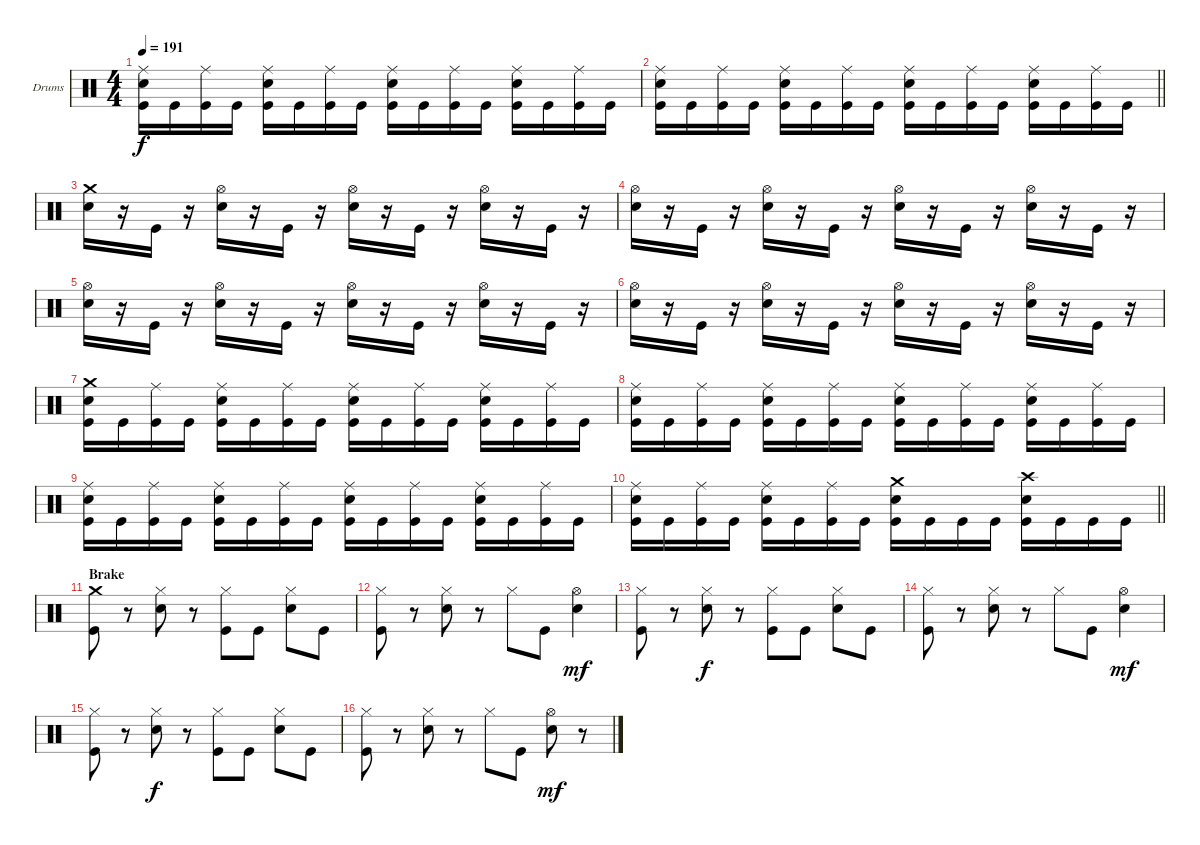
\bracketExtendMode groupsimilarinstruments
\firstSystemTrackNameOrientation horizontal
\otherSystemsTrackNameOrientation horizontal
\track ("Drumkit" "Drums") {instrument percussion}
\staff {score}
\articulation defaults
\ts (4 4)
\tempo 191
\clef neutral
\ks c
("Ride (middle)" "Snare (hit) 2" "Kick (hit)").16{dy f} "Kick (hit)".16 ("Ride (middle)" "Kick (hit)").16 "Kick (hit)".16 ("Ride (middle)" "Snare (hit) 2" "Kick (hit)").16 "Kick (hit)".16 ("Ride (middle)" "Kick (hit)").16 "Kick (hit)".16 ("Ride (middle)" "Snare (hit) 2" "Kick (hit)").16 "Kick (hit)".16 ("Ride (middle)" "Kick (hit)").16 "Kick (hit)".16 ("Ride (middle)" "Snare (hit) 2" "Kick (hit)").16 "Kick (hit)".16 ("Ride (middle)" "Kick (hit)").16 "Kick (hit)".16 |
\barLineRight lightlight
("Ride (middle)" "Snare (hit) 2" "Kick (hit)").16 "Kick (hit)".16 ("Ride (middle)" "Kick (hit)").16 "Kick (hit)".16 ("Ride (middle)" "Snare (hit) 2" "Kick (hit)").16 "Kick (hit)".16 ("Ride (middle)" "Kick (hit)").16 "Kick (hit)".16 ("Ride (middle)" "Snare (hit) 2" "Kick (hit)").16 "Kick (hit)".16 ("Ride (middle)" "Kick (hit)").16 "Kick (hit)".16 ("Ride (middle)" "Snare (hit) 2" "Kick (hit)").16 "Kick (hit)".16 ("Ride (middle)" "Kick (hit)").16 "Kick (hit)".16 |
\section ("" "")
("Crash medium (hit)" "Snare (hit) 2").16 r.16 "Kick (hit)".16 r.16 ("Hi-Hat (open)" "Snare (hit) 2").16 r.16 "Kick (hit)".16 r.16 ("Hi-Hat (open)" "Snare (hit) 2").16 r.16 "Kick (hit)".16 r.16 ("Hi-Hat (open)" "Snare (hit) 2").16 r.16 "Kick (hit)".16 r.16 |
("Hi-Hat (open)" "Snare (hit) 2").16 r.16 "Kick (hit)".16 r.16 ("Hi-Hat (open)" "Snare (hit) 2").16 r.16 "Kick (hit)".16 r.16 ("Hi-Hat (open)" "Snare (hit) 2").16 r.16 "Kick (hit)".16 r.16 ("Hi-Hat (open)" "Snare (hit) 2").16 r.16 "Kick (hit)".16 r.16 |
("Hi-Hat (open)" "Snare (hit) 2").16 r.16 "Kick (hit)".16 r.16 ("Hi-Hat (open)" "Snare (hit) 2").16 r.16 "Kick (hit)".16 r.16 ("Hi-Hat (open)" "Snare (hit) 2").16 r.16 "Kick (hit)".16 r.16 ("Hi-Hat (open)" "Snare (hit) 2").16 r.16 "Kick (hit)".16 r.16 |
("Hi-Hat (open)" "Snare (hit) 2").16 r.16 "Kick (hit)".16 r.16 ("Hi-Hat (open)" "Snare (hit) 2").16 r.16 "Kick (hit)".16 r.16 ("Hi-Hat (open)" "Snare (hit) 2").16 r.16 "Kick (hit)".16 r.16 ("Hi-Hat (open)" "Snare (hit) 2").16 r.16 "Kick (hit)".16 r.16 |
("Crash medium (hit)" "Snare (hit) 2" "Kick (hit)").16 "Kick (hit)".16 ("Ride (middle)" "Kick (hit)").16 "Kick (hit)".16 ("Ride (middle)" "Snare (hit) 2" "Kick (hit)").16 "Kick (hit)".16 ("Ride (middle)" "Kick (hit)").16 "Kick (hit)".16 ("Ride (middle)" "Snare (hit) 2" "Kick (hit)").16 "Kick (hit)".16 ("Ride (middle)" "Kick (hit)").16 "Kick (hit)".16 ("Ride (middle)" "Snare (hit) 2" "Kick (hit)").16 "Kick (hit)".16 ("Ride (middle)" "Kick (hit)").16 "Kick (hit)".16 |
("Ride (middle)" "Snare (hit) 2" "Kick (hit)").16 "Kick (hit)".16 ("Ride (middle)" "Kick (hit)").16 "Kick (hit)".16 ("Ride (middle)" "Snare (hit) 2" "Kick (hit)").16 "Kick (hit)".16 ("Ride (middle)" "Kick (hit)").16 "Kick (hit)".16 ("Ride (middle)" "Snare (hit) 2" "Kick (hit)").16 "Kick (hit)".16 ("Ride (middle)" "Kick (hit)").16 "Kick (hit)".16 ("Ride (middle)" "Snare (hit) 2" "Kick (hit)").16 "Kick (hit)".16 ("Ride (middle)" "Kick (hit)").16 "Kick (hit)".16 |
("Ride (middle)" "Snare (hit) 2" "Kick (hit)").16 "Kick (hit)".16 ("Ride (middle)" "Kick (hit)").16 "Kick (hit)".16 ("Ride (middle)" "Snare (hit) 2" "Kick (hit)").16 "Kick (hit)".16 ("Ride (middle)" "Kick (hit)").16 "Kick (hit)".16 ("Ride (middle)" "Snare (hit) 2" "Kick (hit)").16 "Kick (hit)".16 ("Ride (middle)" "Kick (hit)").16 "Kick (hit)".16 ("Ride (middle)" "Snare (hit) 2" "Kick (hit)").16 "Kick (hit)".16 ("Ride (middle)" "Kick (hit)").16 "Kick (hit)".16 |
\barLineRight lightlight
("Ride (middle)" "Snare (hit) 2" "Kick (hit)").16 "Kick (hit)".16 ("Ride (middle)" "Kick (hit)").16 "Kick (hit)".16 ("Ride (middle)" "Snare (hit) 2" "Kick (hit)").16 "Kick (hit)".16 ("Ride (middle)" "Kick (hit)").16 "Kick (hit)".16 ("Crash medium (hit)" "Snare (hit) 2" "Kick (hit)").16 "Kick (hit)".16 "Kick (hit)".16 "Kick (hit)".16 ("Crash high (hit)" "Snare (hit) 2" "Kick (hit)").16 "Kick (hit)".16 "Kick (hit)".16 "Kick (hit)".16 |
\section ("" "Brake")
("Crash medium (hit)" "Kick (hit)").8 r.8 ("Hi-Hat (closed)" "Snare (hit) 2").8 r.8 ("Hi-Hat (closed)" "Kick (hit)").8 "Kick (hit)".8 ("Hi-Hat (closed)" "Snare (hit) 2").8 "Kick (hit)".8 |
("Hi-Hat (closed)" "Kick (hit)").8 r.8 ("Hi-Hat (closed)" "Snare (hit) 2").8 r.8 "Hi-Hat (closed)".8 "Kick (hit)".8 ("Hi-Hat (open)" "Snare (hit) 2").4{dy mf} |
("Hi-Hat (closed)" "Kick (hit)").8 r.8 ("Hi-Hat (closed)" "Snare (hit) 2").8{dy f} r.8 ("Hi-Hat (closed)" "Kick (hit)").8 "Kick (hit)".8 ("Hi-Hat (closed)" "Snare (hit) 2").8 "Kick (hit)".8 |
("Hi-Hat (closed)" "Kick (hit)").8 r.8 ("Hi-Hat (closed)" "Snare (hit) 2").8 r.8 "Hi-Hat (closed)".8 "Kick (hit)".8 ("Hi-Hat (open)" "Snare (hit) 2").4{dy mf} |
("Hi-Hat (closed)" "Kick (hit)").8 r.8 ("Hi-Hat (closed)" "Snare (hit) 2").8{dy f} r.8 ("Hi-Hat (closed)" "Kick (hit)").8 "Kick (hit)".8 ("Hi-Hat (closed)" "Snare (hit) 2").8 "Kick (hit)".8 |
("Hi-Hat (closed)" "Kick (hit)").8 r.8 ("Hi-Hat (closed)" "Snare (hit) 2").8 r.8 "Hi-Hat (closed)".8 "Kick (hit)".8 ("Hi-Hat (open)" "Snare (hit) 2").8{dy mf} r.8
